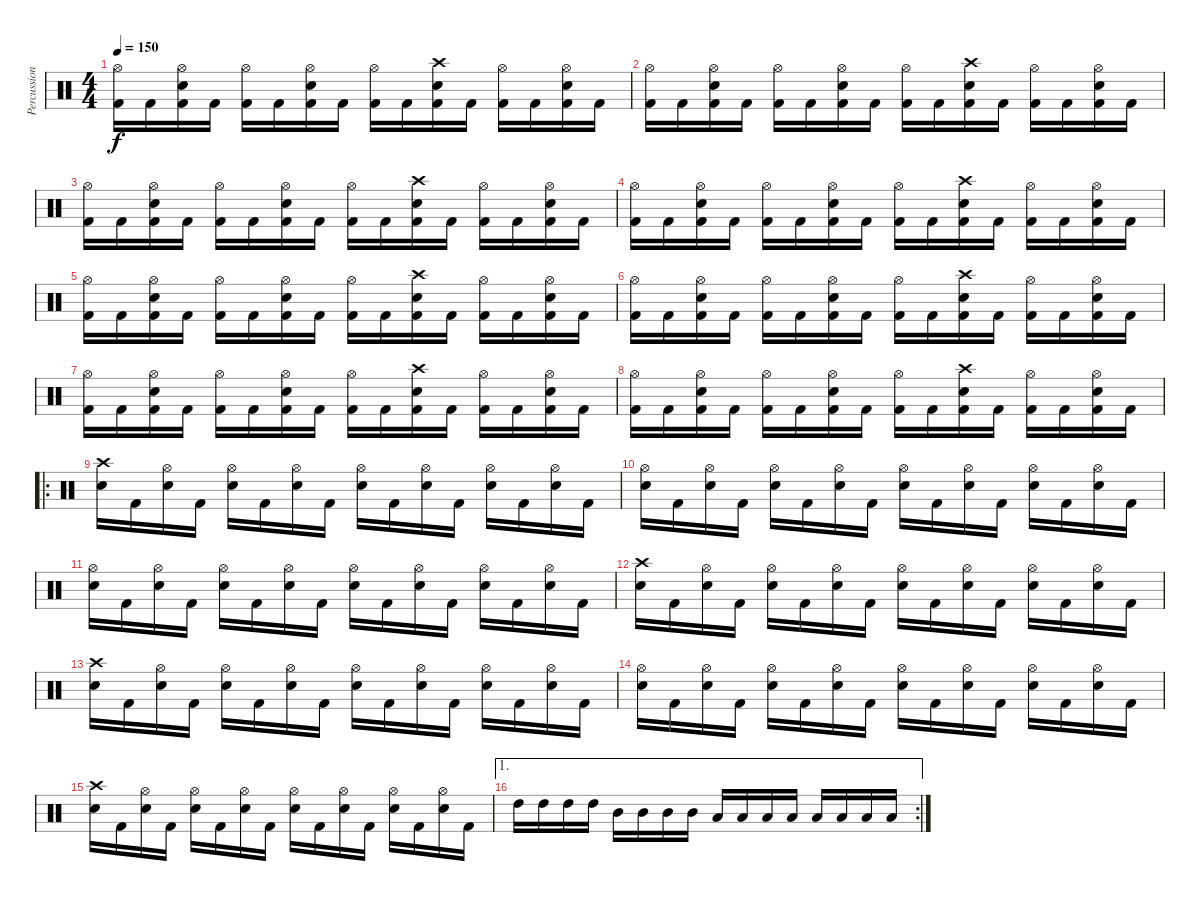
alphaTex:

\track ("Percussion" "Percussion") {instrument percussion}
\staff {score}
\articulation defaults
\ts (4 4)
\tempo 150
\clef neutral
\ks c
("Hi-Hat (open)" "Kick (hit) 2").16{dy f} "Kick (hit) 2".16 ("Hi-Hat (open)" "Electric Snare (hit)" "Kick (hit) 2").16 "Kick (hit) 2".16 ("Hi-Hat (open)" "Kick (hit) 2").16 "Kick (hit) 2".16 ("Hi-Hat (open)" "Electric Snare (hit)" "Kick (hit) 2").16 "Kick (hit) 2".16 ("Hi-Hat (open)" "Kick (hit) 2").16 "Kick (hit) 2".16 ("Crash high (hit)" "Electric Snare (hit)" "Kick (hit) 2").16 "Kick (hit) 2".16 ("Hi-Hat (open)" "Kick (hit) 2").16 "Kick (hit) 2".16 ("Hi-Hat (open)" "Electric Snare (hit)" "Kick (hit) 2").16 "Kick (hit) 2".16 |
("Hi-Hat (open)" "Kick (hit) 2").16 "Kick (hit) 2".16 ("Hi-Hat (open)" "Electric Snare (hit)" "Kick (hit) 2").16 "Kick (hit) 2".16 ("Hi-Hat (open)" "Kick (hit) 2").16 "Kick (hit) 2".16 ("Hi-Hat (open)" "Electric Snare (hit)" "Kick (hit) 2").16 "Kick (hit) 2".16 ("Hi-Hat (open)" "Kick (hit) 2").16 "Kick (hit) 2".16 ("Crash high (hit)" "Electric Snare (hit)" "Kick (hit) 2").16 "Kick (hit) 2".16 ("Hi-Hat (open)" "Kick (hit) 2").16 "Kick (hit) 2".16 ("Hi-Hat (open)" "Electric Snare (hit)" "Kick (hit) 2").16 "Kick (hit) 2".16 |
("Hi-Hat (open)" "Kick (hit) 2").16 "Kick (hit) 2".16 ("Hi-Hat (open)" "Electric Snare (hit)" "Kick (hit) 2").16 "Kick (hit) 2".16 ("Hi-Hat (open)" "Kick (hit) 2").16 "Kick (hit) 2".16 ("Hi-Hat (open)" "Electric Snare (hit)" "Kick (hit) 2").16 "Kick (hit) 2".16 ("Hi-Hat (open)" "Kick (hit) 2").16 "Kick (hit) 2".16 ("Crash high (hit)" "Electric Snare (hit)" "Kick (hit) 2").16 "Kick (hit) 2".16 ("Hi-Hat (open)" "Kick (hit) 2").16 "Kick (hit) 2".16 ("Hi-Hat (open)" "Electric Snare (hit)" "Kick (hit) 2").16 "Kick (hit) 2".16 |
("Hi-Hat (open)" "Kick (hit) 2").16 "Kick (hit) 2".16 ("Hi-Hat (open)" "Electric Snare (hit)" "Kick (hit) 2").16 "Kick (hit) 2".16 ("Hi-Hat (open)" "Kick (hit) 2").16 "Kick (hit) 2".16 ("Hi-Hat (open)" "Electric Snare (hit)" "Kick (hit) 2").16 "Kick (hit) 2".16 ("Hi-Hat (open)" "Kick (hit) 2").16 "Kick (hit) 2".16 ("Crash high (hit)" "Electric Snare (hit)" "Kick (hit) 2").16 "Kick (hit) 2".16 ("Hi-Hat (open)" "Kick (hit) 2").16 "Kick (hit) 2".16 ("Hi-Hat (open)" "Electric Snare (hit)" "Kick (hit) 2").16 "Kick (hit) 2".16 |
("Hi-Hat (open)" "Kick (hit) 2").16 "Kick (hit) 2".16 ("Hi-Hat (open)" "Electric Snare (hit)" "Kick (hit) 2").16 "Kick (hit) 2".16 ("Hi-Hat (open)" "Kick (hit) 2").16 "Kick (hit) 2".16 ("Hi-Hat (open)" "Electric Snare (hit)" "Kick (hit) 2").16 "Kick (hit) 2".16 ("Hi-Hat (open)" "Kick (hit) 2").16 "Kick (hit) 2".16 ("Crash high (hit)" "Electric Snare (hit)" "Kick (hit) 2").16 "Kick (hit) 2".16 ("Hi-Hat (open)" "Kick (hit) 2").16 "Kick (hit) 2".16 ("Hi-Hat (open)" "Electric Snare (hit)" "Kick (hit) 2").16 "Kick (hit) 2".16 |
("Hi-Hat (open)" "Kick (hit) 2").16 "Kick (hit) 2".16 ("Hi-Hat (open)" "Electric Snare (hit)" "Kick (hit) 2").16 "Kick (hit) 2".16 ("Hi-Hat (open)" "Kick (hit) 2").16 "Kick (hit) 2".16 ("Hi-Hat (open)" "Electric Snare (hit)" "Kick (hit) 2").16 "Kick (hit) 2".16 ("Hi-Hat (open)" "Kick (hit) 2").16 "Kick (hit) 2".16 ("Crash high (hit)" "Electric Snare (hit)" "Kick (hit) 2").16 "Kick (hit) 2".16 ("Hi-Hat (open)" "Kick (hit) 2").16 "Kick (hit) 2".16 ("Hi-Hat (open)" "Electric Snare (hit)" "Kick (hit) 2").16 "Kick (hit) 2".16 |
("Hi-Hat (open)" "Kick (hit) 2").16 "Kick (hit) 2".16 ("Hi-Hat (open)" "Electric Snare (hit)" "Kick (hit) 2").16 "Kick (hit) 2".16 ("Hi-Hat (open)" "Kick (hit) 2").16 "Kick (hit) 2".16 ("Hi-Hat (open)" "Electric Snare (hit)" "Kick (hit) 2").16 "Kick (hit) 2".16 ("Hi-Hat (open)" "Kick (hit) 2").16 "Kick (hit) 2".16 ("Crash high (hit)" "Electric Snare (hit)" "Kick (hit) 2").16 "Kick (hit) 2".16 ("Hi-Hat (open)" "Kick (hit) 2").16 "Kick (hit) 2".16 ("Hi-Hat (open)" "Electric Snare (hit)" "Kick (hit) 2").16 "Kick (hit) 2".16 |
("Hi-Hat (open)" "Kick (hit) 2").16 "Kick (hit) 2".16 ("Hi-Hat (open)" "Electric Snare (hit)" "Kick (hit) 2").16 "Kick (hit) 2".16 ("Hi-Hat (open)" "Kick (hit) 2").16 "Kick (hit) 2".16 ("Hi-Hat (open)" "Electric Snare (hit)" "Kick (hit) 2").16 "Kick (hit) 2".16 ("Hi-Hat (open)" "Kick (hit) 2").16 "Kick (hit) 2".16 ("Crash high (hit)" "Electric Snare (hit)" "Kick (hit) 2").16 "Kick (hit) 2".16 ("Hi-Hat (open)" "Kick (hit) 2").16 "Kick (hit) 2".16 ("Hi-Hat (open)" "Electric Snare (hit)" "Kick (hit) 2").16 "Kick (hit) 2".16 |
\ro
("Crash high (hit)" "Electric Snare (hit)").16 "Kick (hit) 2".16 ("Hi-Hat (open)" "Electric Snare (hit)").16 "Kick (hit) 2".16 ("Hi-Hat (open)" "Electric Snare (hit)").16 "Kick (hit) 2".16 ("Hi-Hat (open)" "Electric Snare (hit)").16 "Kick (hit) 2".16 ("Hi-Hat (open)" "Electric Snare (hit)").16 "Kick (hit) 2".16 ("Hi-Hat (open)" "Electric Snare (hit)").16 "Kick (hit) 2".16 ("Hi-Hat (open)" "Electric Snare (hit)").16 "Kick (hit) 2".16 ("Hi-Hat (open)" "Electric Snare (hit)").16 "Kick (hit) 2".16 |
("Hi-Hat (open)" "Electric Snare (hit)").16 "Kick (hit) 2".16 ("Hi-Hat (open)" "Electric Snare (hit)").16 "Kick (hit) 2".16 ("Hi-Hat (open)" "Electric Snare (hit)").16 "Kick (hit) 2".16 ("Hi-Hat (open)" "Electric Snare (hit)").16 "Kick (hit) 2".16 ("Hi-Hat (open)" "Electric Snare (hit)").16 "Kick (hit) 2".16 ("Hi-Hat (open)" "Electric Snare (hit)").16 "Kick (hit) 2".16 ("Hi-Hat (open)" "Electric Snare (hit)").16 "Kick (hit) 2".16 ("Hi-Hat (open)" "Electric Snare (hit)").16 "Kick (hit) 2".16 |
("Hi-Hat (open)" "Electric Snare (hit)").16 "Kick (hit) 2".16 ("Hi-Hat (open)" "Electric Snare (hit)").16 "Kick (hit) 2".16 ("Hi-Hat (open)" "Electric Snare (hit)").16 "Kick (hit) 2".16 ("Hi-Hat (open)" "Electric Snare (hit)").16 "Kick (hit) 2".16 ("Hi-Hat (open)" "Electric Snare (hit)").16 "Kick (hit) 2".16 ("Hi-Hat (open)" "Electric Snare (hit)").16 "Kick (hit) 2".16 ("Hi-Hat (open)" "Electric Snare (hit)").16 "Kick (hit) 2".16 ("Hi-Hat (open)" "Electric Snare (hit)").16 "Kick (hit) 2".16 |
("Crash high (hit)" "Electric Snare (hit)").16 "Kick (hit) 2".16 ("Hi-Hat (open)" "Electric Snare (hit)").16 "Kick (hit) 2".16 ("Hi-Hat (open)" "Electric Snare (hit)").16 "Kick (hit) 2".16 ("Hi-Hat (open)" "Electric Snare (hit)").16 "Kick (hit) 2".16 ("Hi-Hat (open)" "Electric Snare (hit)").16 "Kick (hit) 2".16 ("Hi-Hat (open)" "Electric Snare (hit)").16 "Kick (hit) 2".16 ("Hi-Hat (open)" "Electric Snare (hit)").16 "Kick (hit) 2".16 ("Hi-Hat (open)" "Electric Snare (hit)").16 "Kick (hit) 2".16 |
("Crash high (hit)" "Electric Snare (hit)").16 "Kick (hit) 2".16 ("Hi-Hat (open)" "Electric Snare (hit)").16 "Kick (hit) 2".16 ("Hi-Hat (open)" "Electric Snare (hit)").16 "Kick (hit) 2".16 ("Hi-Hat (open)" "Electric Snare (hit)").16 "Kick (hit) 2".16 ("Hi-Hat (open)" "Electric Snare (hit)").16 "Kick (hit) 2".16 ("Hi-Hat (open)" "Electric Snare (hit)").16 "Kick (hit) 2".16 ("Hi-Hat (open)" "Electric Snare (hit)").16 "Kick (hit) 2".16 ("Hi-Hat (open)" "Electric Snare (hit)").16 "Kick (hit) 2".16 |
("Hi-Hat (open)" "Electric Snare (hit)").16 "Kick (hit) 2".16 ("Hi-Hat (open)" "Electric Snare (hit)").16 "Kick (hit) 2".16 ("Hi-Hat (open)" "Electric Snare (hit)").16 "Kick (hit) 2".16 ("Hi-Hat (open)" "Electric Snare (hit)").16 "Kick (hit) 2".16 ("Hi-Hat (open)" "Electric Snare (hit)").16 "Kick (hit) 2".16 ("Hi-Hat (open)" "Electric Snare (hit)").16 "Kick (hit) 2".16 ("Hi-Hat (open)" "Electric Snare (hit)").16 "Kick (hit) 2".16 ("Hi-Hat (open)" "Electric Snare (hit)").16 "Kick (hit) 2".16 |
("Crash high (hit)" "Electric Snare (hit)").16 "Kick (hit) 2".16 ("Hi-Hat (open)" "Electric Snare (hit)").16 "Kick (hit) 2".16 ("Hi-Hat (open)" "Electric Snare (hit)").16 "Kick (hit) 2".16 ("Hi-Hat (open)" "Electric Snare (hit)").16 "Kick (hit) 2".16 ("Hi-Hat (open)" "Electric Snare (hit)").16 "Kick (hit) 2".16 ("Hi-Hat (open)" "Electric Snare (hit)").16 "Kick (hit) 2".16 ("Hi-Hat (open)" "Electric Snare (hit)").16 "Kick (hit) 2".16 ("Hi-Hat (open)" "Electric Snare (hit)").16 "Kick (hit) 2".16 |
\ae 1
\rc 2 "High Tom (hit)".16 "High Tom (hit)".16 "High Tom (hit)".16 "High Tom (hit)".16 "Mid Tom (hit)".16 "Mid Tom (hit)".16 "Mid Tom (hit)".16 "Mid Tom (hit)".16 "Low Tom (hit)".16 "Low Tom (hit)".16 "Low Tom (hit)".16 "Low Tom (hit)".16 "Low Floor Tom (hit)".16 "Low Floor Tom (hit)".16 "Low Floor Tom (hit)".16 "Low Floor Tom (hit)".16
